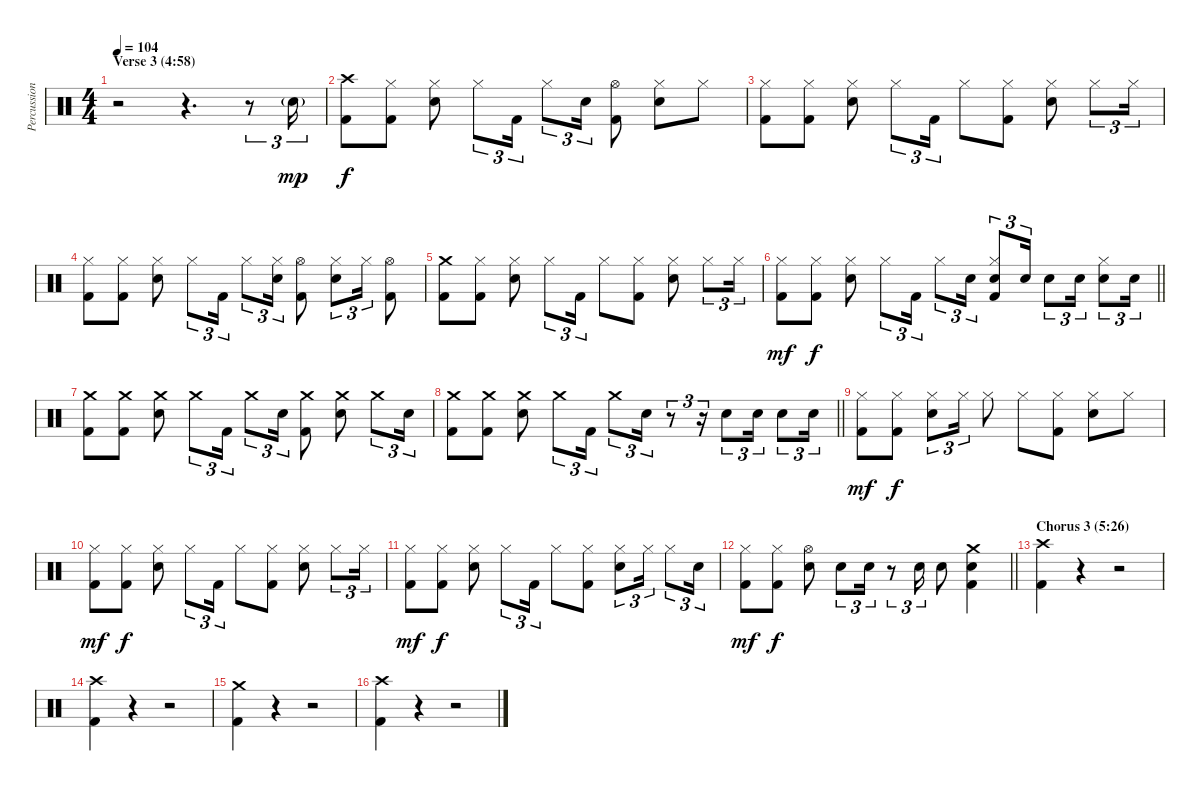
\track ("Percussion" "Percussion") {instrument percussion}
\staff {score}
\articulation defaults
\ts (4 4)
\section ("" "Verse 3 (4:58)")
\tempo 104
\clef neutral
\ks c
r.2{dy f} r.4{d} r.8{tu (3 2)} "Snare (hit) 2"{g}.16{tu (3 2) dy mp} |
("Crash high (hit)" "Kick (hit) 2").8{dy f} ("Hi-Hat (closed)" "Kick (hit) 2").8 ("Hi-Hat (closed)" "Electric Snare (hit)").8 "Hi-Hat (closed)".8{tu (3 2)} "Kick (hit) 2".16{tu (3 2)} "Hi-Hat (closed)".8{tu (3 2)} "Electric Snare (hit)".16{tu (3 2)} ("Hi-Hat (open)" "Kick (hit) 2").8 ("Hi-Hat (closed)" "Electric Snare (hit)").8 "Hi-Hat (closed)".8 |
("Hi-Hat (closed)" "Kick (hit) 2").8 ("Hi-Hat (closed)" "Kick (hit) 2").8 ("Hi-Hat (closed)" "Electric Snare (hit)").8 "Hi-Hat (closed)".8{tu (3 2)} "Kick (hit) 2".16{tu (3 2)} "Hi-Hat (closed)".8 ("Hi-Hat (closed)" "Kick (hit) 2").8 ("Hi-Hat (closed)" "Electric Snare (hit)").8 "Hi-Hat (closed)".8{tu (3 2)} "Hi-Hat (closed)".16{tu (3 2)} |
("Hi-Hat (closed)" "Kick (hit) 2").8 ("Hi-Hat (closed)" "Kick (hit) 2").8 ("Hi-Hat (closed)" "Electric Snare (hit)").8 "Hi-Hat (closed)".8{tu (3 2)} "Kick (hit) 2".16{tu (3 2)} "Hi-Hat (closed)".8{tu (3 2)} ("Hi-Hat (closed)" "Electric Snare (hit)").16{tu (3 2)} ("Hi-Hat (open)" "Kick (hit) 2").8 ("Hi-Hat (closed)" "Electric Snare (hit)").8{tu (3 2)} "Hi-Hat (closed)".16{tu (3 2)} ("Hi-Hat (open)" "Kick (hit) 2").8 |
("Crash medium (hit)" "Kick (hit) 2").8 ("Hi-Hat (closed)" "Kick (hit) 2").8 ("Hi-Hat (closed)" "Electric Snare (hit)").8 "Hi-Hat (closed)".8{tu (3 2)} "Kick (hit) 2".16{tu (3 2)} "Hi-Hat (closed)".8 ("Hi-Hat (closed)" "Kick (hit) 2").8 ("Hi-Hat (closed)" "Electric Snare (hit)").8 "Hi-Hat (closed)".8{tu (3 2)} "Hi-Hat (closed)".16{tu (3 2)} |
\barLineRight lightlight
("Hi-Hat (closed)" "Kick (hit) 2").8{dy mf} ("Hi-Hat (closed)" "Kick (hit) 2").8{dy f} ("Hi-Hat (closed)" "Electric Snare (hit)").8 "Hi-Hat (closed)".8{tu (3 2)} "Kick (hit) 2".16{tu (3 2)} "Hi-Hat (closed)".8{tu (3 2)} "Electric Snare (hit)".16{tu (3 2)} ("Hi-Hat (closed)" "Electric Snare (hit)" "Kick (hit) 2").8{tu (3 2)} "Electric Snare (hit)".16{tu (3 2)} "Snare (hit) 2".8{tu (3 2)} "Snare (hit) 2".16{tu (3 2)} ("Hi-Hat (closed)" "Electric Snare (hit)").8{tu (3 2)} "Electric Snare (hit)".16{tu (3 2)} |
("Crash medium (hit)" "Kick (hit) 2").8 ("Crash medium (hit)" "Kick (hit) 2").8 ("Crash medium (hit)" "Electric Snare (hit)").8 "Crash medium (hit)".8{tu (3 2)} "Kick (hit) 2".16{tu (3 2)} "Crash medium (hit)".8{tu (3 2)} "Electric Snare (hit)".16{tu (3 2)} ("Crash medium (hit)" "Kick (hit) 2").8 ("Crash medium (hit)" "Electric Snare (hit)").8 "Crash medium (hit)".8{tu (3 2)} "Electric Snare (hit)".16{tu (3 2)} |
\barLineRight lightlight
("Crash medium (hit)" "Kick (hit) 2").8 ("Crash medium (hit)" "Kick (hit) 2").8 ("Crash medium (hit)" "Electric Snare (hit)").8 "Crash medium (hit)".8{tu (3 2)} "Kick (hit) 2".16{tu (3 2)} "Crash medium (hit)".8{tu (3 2)} "Electric Snare (hit)".16{tu (3 2)} r.8{tu (3 2)} r.16{tu (3 2)} "Electric Snare (hit)".8{tu (3 2)} "Electric Snare (hit)".16{tu (3 2)} "Electric Snare (hit)".8{tu (3 2)} "Electric Snare (hit)".16{tu (3 2)} |
("Hi-Hat (closed)" "Kick (hit) 2").8{dy mf} ("Hi-Hat (closed)" "Kick (hit) 2").8{dy f} ("Hi-Hat (closed)" "Electric Snare (hit)").8{tu (3 2)} "Hi-Hat (closed)".16{tu (3 2)} "Hi-Hat (closed)".8 "Hi-Hat (closed)".8 ("Hi-Hat (closed)" "Kick (hit) 2").8 ("Hi-Hat (closed)" "Electric Snare (hit)").8 "Hi-Hat (closed)".8 |
("Hi-Hat (closed)" "Kick (hit) 2").8{dy mf} ("Hi-Hat (closed)" "Kick (hit) 2").8{dy f} ("Hi-Hat (closed)" "Electric Snare (hit)").8 "Hi-Hat (closed)".8{tu (3 2)} "Kick (hit) 2".16{tu (3 2)} "Hi-Hat (closed)".8 ("Hi-Hat (closed)" "Kick (hit) 2").8 ("Hi-Hat (closed)" "Electric Snare (hit)").8 "Hi-Hat (closed)".8{tu (3 2)} "Hi-Hat (closed)".16{tu (3 2)} |
("Hi-Hat (closed)" "Kick (hit) 2").8{dy mf} ("Hi-Hat (closed)" "Kick (hit) 2").8{dy f} ("Hi-Hat (closed)" "Electric Snare (hit)").8 "Hi-Hat (closed)".8{tu (3 2)} "Kick (hit) 2".16{tu (3 2)} "Hi-Hat (closed)".8 ("Hi-Hat (closed)" "Kick (hit) 2").8 ("Hi-Hat (closed)" "Electric Snare (hit)").8{tu (3 2)} "Hi-Hat (closed)".16{tu (3 2)} "Hi-Hat (closed)".8{tu (3 2)} "Electric Snare (hit)".16{tu (3 2)} |
\barLineRight lightlight
("Hi-Hat (closed)" "Kick (hit) 2").8{dy mf} ("Hi-Hat (closed)" "Kick (hit) 2").8{dy f} ("Hi-Hat (open)" "Electric Snare (hit)").8 "Electric Snare (hit)".8{tu (3 2)} "Electric Snare (hit)".16{tu (3 2)} r.8{tu (3 2)} "Snare (hit) 2".16{tu (3 2)} "Snare (hit) 2".8 ("Crash medium (hit)" "Electric Snare (hit)" "Kick (hit) 2").4 |
\section ("" "Chorus 3 (5:26)")
("Crash high (hit)" "Kick (hit) 2").4 r.4 r.2 |
("Crash high (hit)" "Kick (hit) 2").4 r.4 r.2 |
("Crash medium (hit)" "Kick (hit) 2").4 r.4 r.2 |
("Crash high (hit)" "Kick (hit) 2").4 r.4 r.2
